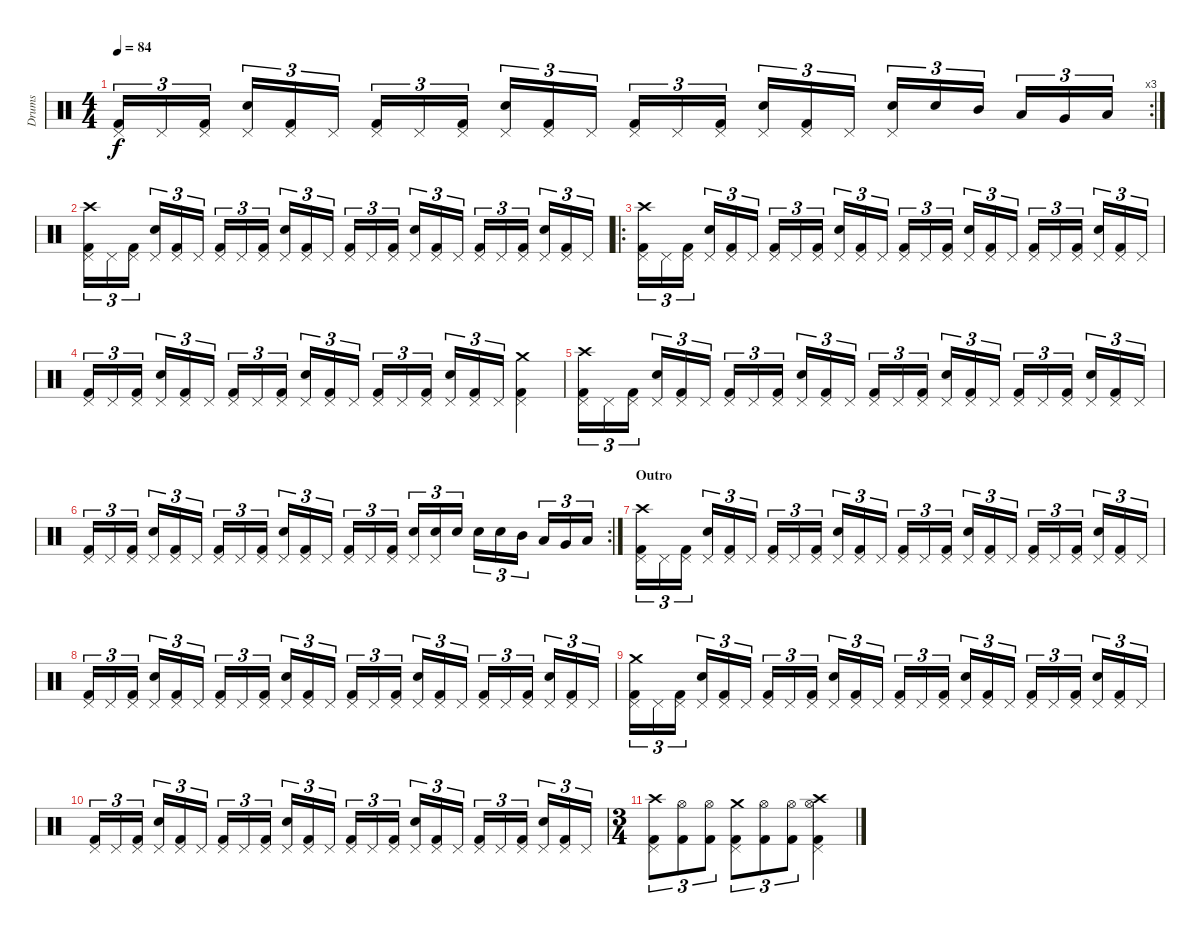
\track ("Drums" "Drums") {instrument percussion}
\staff {score}
\articulation defaults
\rc 3
\ts (4 4)
\tempo 84
\clef neutral
\ks c
("Kick (hit) 2" "Pedal Hi-Hat (hit)").16{tu (3 2) dy f} "Pedal Hi-Hat (hit)".16{tu (3 2)} ("Kick (hit) 2" "Pedal Hi-Hat (hit)").16{tu (3 2)} ("Snare (hit) 2" "Pedal Hi-Hat (hit)").16{tu (3 2)} ("Kick (hit) 2" "Pedal Hi-Hat (hit)").16{tu (3 2)} "Pedal Hi-Hat (hit)".16{tu (3 2)} ("Kick (hit) 2" "Pedal Hi-Hat (hit)").16{tu (3 2)} "Pedal Hi-Hat (hit)".16{tu (3 2)} ("Kick (hit) 2" "Pedal Hi-Hat (hit)").16{tu (3 2)} ("Snare (hit) 2" "Pedal Hi-Hat (hit)").16{tu (3 2)} ("Kick (hit) 2" "Pedal Hi-Hat (hit)").16{tu (3 2)} "Pedal Hi-Hat (hit)".16{tu (3 2)} ("Kick (hit) 2" "Pedal Hi-Hat (hit)").16{tu (3 2)} "Pedal Hi-Hat (hit)".16{tu (3 2)} ("Kick (hit) 2" "Pedal Hi-Hat (hit)").16{tu (3 2)} ("Snare (hit) 2" "Pedal Hi-Hat (hit)").16{tu (3 2)} ("Kick (hit) 2" "Pedal Hi-Hat (hit)").16{tu (3 2)} "Pedal Hi-Hat (hit)".16{tu (3 2)} ("Snare (hit) 2" "Pedal Hi-Hat (hit)").16{tu (3 2)} "Snare (hit) 2".16{tu (3 2)} "Mid Tom (hit)".16{tu (3 2)} "Low Tom (hit)".16{tu (3 2)} "Very Low Tom (hit)".16{tu (3 2)} "Low Floor Tom (hit)".16{tu (3 2)} |
("Kick (hit) 2" "Pedal Hi-Hat (hit)" "Crash high (hit)").16{tu (3 2)} "Pedal Hi-Hat (hit)".16{tu (3 2)} ("Kick (hit) 2" "Pedal Hi-Hat (hit)").16{tu (3 2)} ("Snare (hit) 2" "Pedal Hi-Hat (hit)").16{tu (3 2)} ("Kick (hit) 2" "Pedal Hi-Hat (hit)").16{tu (3 2)} "Pedal Hi-Hat (hit)".16{tu (3 2)} ("Kick (hit) 2" "Pedal Hi-Hat (hit)").16{tu (3 2)} "Pedal Hi-Hat (hit)".16{tu (3 2)} ("Kick (hit) 2" "Pedal Hi-Hat (hit)").16{tu (3 2)} ("Snare (hit) 2" "Pedal Hi-Hat (hit)").16{tu (3 2)} ("Kick (hit) 2" "Pedal Hi-Hat (hit)").16{tu (3 2)} "Pedal Hi-Hat (hit)".16{tu (3 2)} ("Kick (hit) 2" "Pedal Hi-Hat (hit)").16{tu (3 2)} "Pedal Hi-Hat (hit)".16{tu (3 2)} ("Kick (hit) 2" "Pedal Hi-Hat (hit)").16{tu (3 2)} ("Snare (hit) 2" "Pedal Hi-Hat (hit)").16{tu (3 2)} ("Kick (hit) 2" "Pedal Hi-Hat (hit)").16{tu (3 2)} "Pedal Hi-Hat (hit)".16{tu (3 2)} ("Kick (hit) 2" "Pedal Hi-Hat (hit)").16{tu (3 2)} "Pedal Hi-Hat (hit)".16{tu (3 2)} ("Kick (hit) 2" "Pedal Hi-Hat (hit)").16{tu (3 2)} ("Snare (hit) 2" "Pedal Hi-Hat (hit)").16{tu (3 2)} ("Kick (hit) 2" "Pedal Hi-Hat (hit)").16{tu (3 2)} "Pedal Hi-Hat (hit)".16{tu (3 2)} |
\ro
("Kick (hit) 2" "Pedal Hi-Hat (hit)" "Crash high (hit)").16{tu (3 2)} "Pedal Hi-Hat (hit)".16{tu (3 2)} ("Kick (hit) 2" "Pedal Hi-Hat (hit)").16{tu (3 2)} ("Snare (hit) 2" "Pedal Hi-Hat (hit)").16{tu (3 2)} ("Kick (hit) 2" "Pedal Hi-Hat (hit)").16{tu (3 2)} "Pedal Hi-Hat (hit)".16{tu (3 2)} ("Kick (hit) 2" "Pedal Hi-Hat (hit)").16{tu (3 2)} "Pedal Hi-Hat (hit)".16{tu (3 2)} ("Kick (hit) 2" "Pedal Hi-Hat (hit)").16{tu (3 2)} ("Snare (hit) 2" "Pedal Hi-Hat (hit)").16{tu (3 2)} ("Kick (hit) 2" "Pedal Hi-Hat (hit)").16{tu (3 2)} "Pedal Hi-Hat (hit)".16{tu (3 2)} ("Kick (hit) 2" "Pedal Hi-Hat (hit)").16{tu (3 2)} "Pedal Hi-Hat (hit)".16{tu (3 2)} ("Kick (hit) 2" "Pedal Hi-Hat (hit)").16{tu (3 2)} ("Snare (hit) 2" "Pedal Hi-Hat (hit)").16{tu (3 2)} ("Kick (hit) 2" "Pedal Hi-Hat (hit)").16{tu (3 2)} "Pedal Hi-Hat (hit)".16{tu (3 2)} ("Kick (hit) 2" "Pedal Hi-Hat (hit)").16{tu (3 2)} "Pedal Hi-Hat (hit)".16{tu (3 2)} ("Kick (hit) 2" "Pedal Hi-Hat (hit)").16{tu (3 2)} ("Snare (hit) 2" "Pedal Hi-Hat (hit)").16{tu (3 2)} ("Kick (hit) 2" "Pedal Hi-Hat (hit)").16{tu (3 2)} "Pedal Hi-Hat (hit)".16{tu (3 2)} |
("Kick (hit) 2" "Pedal Hi-Hat (hit)").16{tu (3 2)} "Pedal Hi-Hat (hit)".16{tu (3 2)} ("Kick (hit) 2" "Pedal Hi-Hat (hit)").16{tu (3 2)} ("Snare (hit) 2" "Pedal Hi-Hat (hit)").16{tu (3 2)} ("Kick (hit) 2" "Pedal Hi-Hat (hit)").16{tu (3 2)} "Pedal Hi-Hat (hit)".16{tu (3 2)} ("Kick (hit) 2" "Pedal Hi-Hat (hit)").16{tu (3 2)} "Pedal Hi-Hat (hit)".16{tu (3 2)} ("Kick (hit) 2" "Pedal Hi-Hat (hit)").16{tu (3 2)} ("Snare (hit) 2" "Pedal Hi-Hat (hit)").16{tu (3 2)} ("Kick (hit) 2" "Pedal Hi-Hat (hit)").16{tu (3 2)} "Pedal Hi-Hat (hit)".16{tu (3 2)} ("Kick (hit) 2" "Pedal Hi-Hat (hit)").16{tu (3 2)} "Pedal Hi-Hat (hit)".16{tu (3 2)} ("Kick (hit) 2" "Pedal Hi-Hat (hit)").16{tu (3 2)} ("Snare (hit) 2" "Pedal Hi-Hat (hit)").16{tu (3 2)} ("Kick (hit) 2" "Pedal Hi-Hat (hit)").16{tu (3 2)} "Pedal Hi-Hat (hit)".16{tu (3 2)} ("Kick (hit) 2" "Pedal Hi-Hat (hit)" "Crash medium (hit)").4 |
("Kick (hit) 2" "Pedal Hi-Hat (hit)" "Crash high (hit)").16{tu (3 2)} "Pedal Hi-Hat (hit)".16{tu (3 2)} ("Kick (hit) 2" "Pedal Hi-Hat (hit)").16{tu (3 2)} ("Snare (hit) 2" "Pedal Hi-Hat (hit)").16{tu (3 2)} ("Kick (hit) 2" "Pedal Hi-Hat (hit)").16{tu (3 2)} "Pedal Hi-Hat (hit)".16{tu (3 2)} ("Kick (hit) 2" "Pedal Hi-Hat (hit)").16{tu (3 2)} "Pedal Hi-Hat (hit)".16{tu (3 2)} ("Kick (hit) 2" "Pedal Hi-Hat (hit)").16{tu (3 2)} ("Snare (hit) 2" "Pedal Hi-Hat (hit)").16{tu (3 2)} ("Kick (hit) 2" "Pedal Hi-Hat (hit)").16{tu (3 2)} "Pedal Hi-Hat (hit)".16{tu (3 2)} ("Kick (hit) 2" "Pedal Hi-Hat (hit)").16{tu (3 2)} "Pedal Hi-Hat (hit)".16{tu (3 2)} ("Kick (hit) 2" "Pedal Hi-Hat (hit)").16{tu (3 2)} ("Snare (hit) 2" "Pedal Hi-Hat (hit)").16{tu (3 2)} ("Kick (hit) 2" "Pedal Hi-Hat (hit)").16{tu (3 2)} "Pedal Hi-Hat (hit)".16{tu (3 2)} ("Kick (hit) 2" "Pedal Hi-Hat (hit)").16{tu (3 2)} "Pedal Hi-Hat (hit)".16{tu (3 2)} ("Kick (hit) 2" "Pedal Hi-Hat (hit)").16{tu (3 2)} ("Snare (hit) 2" "Pedal Hi-Hat (hit)").16{tu (3 2)} ("Kick (hit) 2" "Pedal Hi-Hat (hit)").16{tu (3 2)} "Pedal Hi-Hat (hit)".16{tu (3 2)} |
\rc 2
("Kick (hit) 2" "Pedal Hi-Hat (hit)").16{tu (3 2)} "Pedal Hi-Hat (hit)".16{tu (3 2)} ("Kick (hit) 2" "Pedal Hi-Hat (hit)").16{tu (3 2)} ("Snare (hit) 2" "Pedal Hi-Hat (hit)").16{tu (3 2)} ("Kick (hit) 2" "Pedal Hi-Hat (hit)").16{tu (3 2)} "Pedal Hi-Hat (hit)".16{tu (3 2)} ("Kick (hit) 2" "Pedal Hi-Hat (hit)").16{tu (3 2)} "Pedal Hi-Hat (hit)".16{tu (3 2)} ("Kick (hit) 2" "Pedal Hi-Hat (hit)").16{tu (3 2)} ("Snare (hit) 2" "Pedal Hi-Hat (hit)").16{tu (3 2)} ("Kick (hit) 2" "Pedal Hi-Hat (hit)").16{tu (3 2)} "Pedal Hi-Hat (hit)".16{tu (3 2)} ("Kick (hit) 2" "Pedal Hi-Hat (hit)").16{tu (3 2)} "Pedal Hi-Hat (hit)".16{tu (3 2)} ("Kick (hit) 2" "Pedal Hi-Hat (hit)").16{tu (3 2)} ("Snare (hit) 2" "Pedal Hi-Hat (hit)").16{tu (3 2)} ("Snare (hit) 2" "Pedal Hi-Hat (hit)").16{tu (3 2)} "Snare (hit) 2".16{tu (3 2)} "Snare (hit) 2".16{tu (3 2)} "Snare (hit) 2".16{tu (3 2)} "Mid Tom (hit)".16{tu (3 2)} "Low Tom (hit)".16{tu (3 2)} "Very Low Tom (hit)".16{tu (3 2)} "Low Floor Tom (hit)".16{tu (3 2)} |
\section ("" "Outro")
("Kick (hit) 2" "Pedal Hi-Hat (hit)" "Crash high (hit)").16{tu (3 2)} "Pedal Hi-Hat (hit)".16{tu (3 2)} ("Kick (hit) 2" "Pedal Hi-Hat (hit)").16{tu (3 2)} ("Snare (hit) 2" "Pedal Hi-Hat (hit)").16{tu (3 2)} ("Kick (hit) 2" "Pedal Hi-Hat (hit)").16{tu (3 2)} "Pedal Hi-Hat (hit)".16{tu (3 2)} ("Kick (hit) 2" "Pedal Hi-Hat (hit)").16{tu (3 2)} "Pedal Hi-Hat (hit)".16{tu (3 2)} ("Kick (hit) 2" "Pedal Hi-Hat (hit)").16{tu (3 2)} ("Snare (hit) 2" "Pedal Hi-Hat (hit)").16{tu (3 2)} ("Kick (hit) 2" "Pedal Hi-Hat (hit)").16{tu (3 2)} "Pedal Hi-Hat (hit)".16{tu (3 2)} ("Kick (hit) 2" "Pedal Hi-Hat (hit)").16{tu (3 2)} "Pedal Hi-Hat (hit)".16{tu (3 2)} ("Kick (hit) 2" "Pedal Hi-Hat (hit)").16{tu (3 2)} ("Snare (hit) 2" "Pedal Hi-Hat (hit)").16{tu (3 2)} ("Kick (hit) 2" "Pedal Hi-Hat (hit)").16{tu (3 2)} "Pedal Hi-Hat (hit)".16{tu (3 2)} ("Kick (hit) 2" "Pedal Hi-Hat (hit)").16{tu (3 2)} "Pedal Hi-Hat (hit)".16{tu (3 2)} ("Kick (hit) 2" "Pedal Hi-Hat (hit)").16{tu (3 2)} ("Snare (hit) 2" "Pedal Hi-Hat (hit)").16{tu (3 2)} ("Kick (hit) 2" "Pedal Hi-Hat (hit)").16{tu (3 2)} "Pedal Hi-Hat (hit)".16{tu (3 2)} |
("Kick (hit) 2" "Pedal Hi-Hat (hit)").16{tu (3 2)} "Pedal Hi-Hat (hit)".16{tu (3 2)} ("Kick (hit) 2" "Pedal Hi-Hat (hit)").16{tu (3 2)} ("Snare (hit) 2" "Pedal Hi-Hat (hit)").16{tu (3 2)} ("Kick (hit) 2" "Pedal Hi-Hat (hit)").16{tu (3 2)} "Pedal Hi-Hat (hit)".16{tu (3 2)} ("Kick (hit) 2" "Pedal Hi-Hat (hit)").16{tu (3 2)} "Pedal Hi-Hat (hit)".16{tu (3 2)} ("Kick (hit) 2" "Pedal Hi-Hat (hit)").16{tu (3 2)} ("Snare (hit) 2" "Pedal Hi-Hat (hit)").16{tu (3 2)} ("Kick (hit) 2" "Pedal Hi-Hat (hit)").16{tu (3 2)} "Pedal Hi-Hat (hit)".16{tu (3 2)} ("Kick (hit) 2" "Pedal Hi-Hat (hit)").16{tu (3 2)} "Pedal Hi-Hat (hit)".16{tu (3 2)} ("Kick (hit) 2" "Pedal Hi-Hat (hit)").16{tu (3 2)} ("Snare (hit) 2" "Pedal Hi-Hat (hit)").16{tu (3 2)} ("Kick (hit) 2" "Pedal Hi-Hat (hit)").16{tu (3 2)} "Pedal Hi-Hat (hit)".16{tu (3 2)} ("Kick (hit) 2" "Pedal Hi-Hat (hit)").16{tu (3 2)} "Pedal Hi-Hat (hit)".16{tu (3 2)} ("Kick (hit) 2" "Pedal Hi-Hat (hit)").16{tu (3 2)} ("Snare (hit) 2" "Pedal Hi-Hat (hit)").16{tu (3 2)} ("Kick (hit) 2" "Pedal Hi-Hat (hit)").16{tu (3 2)} "Pedal Hi-Hat (hit)".16{tu (3 2)} |
("Kick (hit) 2" "Pedal Hi-Hat (hit)" "Crash medium (hit)").16{tu (3 2)} "Pedal Hi-Hat (hit)".16{tu (3 2)} ("Kick (hit) 2" "Pedal Hi-Hat (hit)").16{tu (3 2)} ("Snare (hit) 2" "Pedal Hi-Hat (hit)").16{tu (3 2)} ("Kick (hit) 2" "Pedal Hi-Hat (hit)").16{tu (3 2)} "Pedal Hi-Hat (hit)".16{tu (3 2)} ("Kick (hit) 2" "Pedal Hi-Hat (hit)").16{tu (3 2)} "Pedal Hi-Hat (hit)".16{tu (3 2)} ("Kick (hit) 2" "Pedal Hi-Hat (hit)").16{tu (3 2)} ("Snare (hit) 2" "Pedal Hi-Hat (hit)").16{tu (3 2)} ("Kick (hit) 2" "Pedal Hi-Hat (hit)").16{tu (3 2)} "Pedal Hi-Hat (hit)".16{tu (3 2)} ("Kick (hit) 2" "Pedal Hi-Hat (hit)").16{tu (3 2)} "Pedal Hi-Hat (hit)".16{tu (3 2)} ("Kick (hit) 2" "Pedal Hi-Hat (hit)").16{tu (3 2)} ("Snare (hit) 2" "Pedal Hi-Hat (hit)").16{tu (3 2)} ("Kick (hit) 2" "Pedal Hi-Hat (hit)").16{tu (3 2)} "Pedal Hi-Hat (hit)".16{tu (3 2)} ("Kick (hit) 2" "Pedal Hi-Hat (hit)").16{tu (3 2)} "Pedal Hi-Hat (hit)".16{tu (3 2)} ("Kick (hit) 2" "Pedal Hi-Hat (hit)").16{tu (3 2)} ("Snare (hit) 2" "Pedal Hi-Hat (hit)").16{tu (3 2)} ("Kick (hit) 2" "Pedal Hi-Hat (hit)").16{tu (3 2)} "Pedal Hi-Hat (hit)".16{tu (3 2)} |
("Kick (hit) 2" "Pedal Hi-Hat (hit)").16{tu (3 2)} "Pedal Hi-Hat (hit)".16{tu (3 2)} ("Kick (hit) 2" "Pedal Hi-Hat (hit)").16{tu (3 2)} ("Snare (hit) 2" "Pedal Hi-Hat (hit)").16{tu (3 2)} ("Kick (hit) 2" "Pedal Hi-Hat (hit)").16{tu (3 2)} "Pedal Hi-Hat (hit)".16{tu (3 2)} ("Kick (hit) 2" "Pedal Hi-Hat (hit)").16{tu (3 2)} "Pedal Hi-Hat (hit)".16{tu (3 2)} ("Kick (hit) 2" "Pedal Hi-Hat (hit)").16{tu (3 2)} ("Snare (hit) 2" "Pedal Hi-Hat (hit)").16{tu (3 2)} ("Kick (hit) 2" "Pedal Hi-Hat (hit)").16{tu (3 2)} "Pedal Hi-Hat (hit)".16{tu (3 2)} ("Kick (hit) 2" "Pedal Hi-Hat (hit)").16{tu (3 2)} "Pedal Hi-Hat (hit)".16{tu (3 2)} ("Kick (hit) 2" "Pedal Hi-Hat (hit)").16{tu (3 2)} ("Snare (hit) 2" "Pedal Hi-Hat (hit)").16{tu (3 2)} ("Kick (hit) 2" "Pedal Hi-Hat (hit)").16{tu (3 2)} "Pedal Hi-Hat (hit)".16{tu (3 2)} ("Kick (hit) 2" "Pedal Hi-Hat (hit)").16{tu (3 2)} "Pedal Hi-Hat (hit)".16{tu (3 2)} ("Kick (hit) 2" "Pedal Hi-Hat (hit)").16{tu (3 2)} ("Snare (hit) 2" "Pedal Hi-Hat (hit)").16{tu (3 2)} ("Kick (hit) 2" "Pedal Hi-Hat (hit)").16{tu (3 2)} "Pedal Hi-Hat (hit)".16{tu (3 2)} |
\ts (3 4)
("Kick (hit) 2" "Pedal Hi-Hat (hit)" "Crash high (hit)").8{tu (3 2)} ("Kick (hit) 2" "Hi-Hat (open)").8{tu (3 2)} ("Kick (hit) 2" "Hi-Hat (open)").8{tu (3 2)} ("Kick (hit) 2" "Pedal Hi-Hat (hit)" "Crash medium (hit)").8{tu (3 2)} ("Kick (hit) 2" "Hi-Hat (open)").8{tu (3 2)} ("Kick (hit) 2" "Hi-Hat (open)").8{tu (3 2)} ("Kick (hit) 2" "Pedal Hi-Hat (hit)" "Hi-Hat (open)" "Crash high (hit)").4
